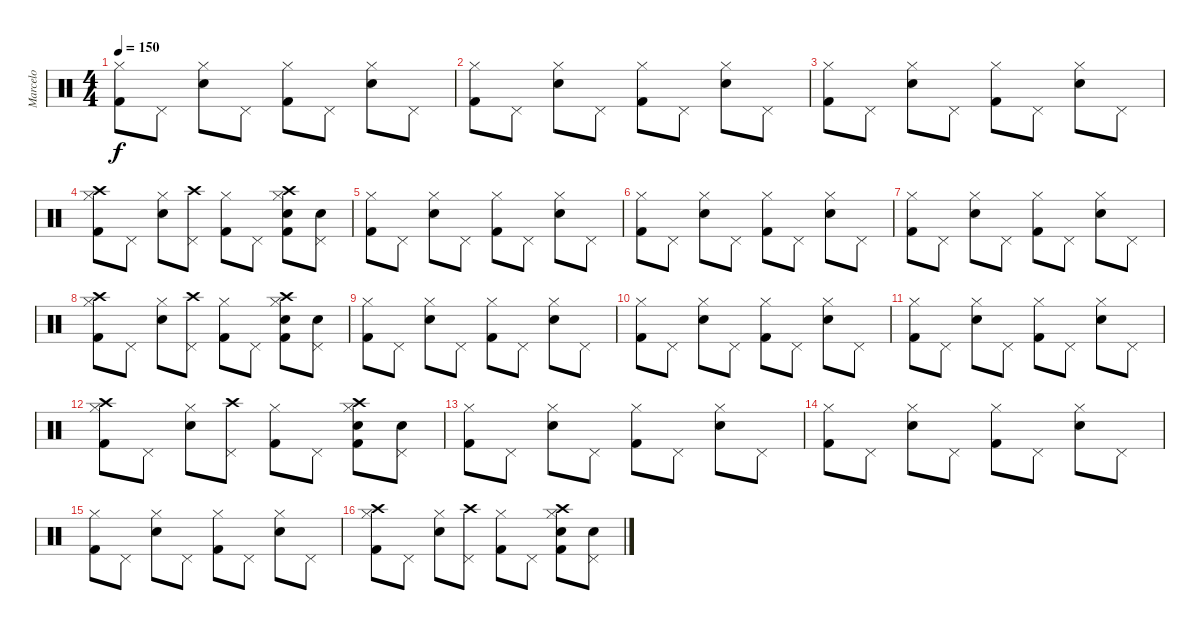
\track ("Marcelo" "Marcelo") {instrument percussion}
\staff {score}
\articulation defaults
\ts (4 4)
\tempo 150
\clef neutral
\ks c
("Hi-Hat (closed)" "Kick (hit) 2").8{dy f} "Pedal Hi-Hat (hit)".8 ("Hi-Hat (closed)" "Electric Snare (hit)").8 "Pedal Hi-Hat (hit)".8 ("Hi-Hat (closed)" "Kick (hit) 2").8 "Pedal Hi-Hat (hit)".8 ("Hi-Hat (closed)" "Electric Snare (hit)").8 "Pedal Hi-Hat (hit)".8 |
("Hi-Hat (closed)" "Kick (hit) 2").8 "Pedal Hi-Hat (hit)".8 ("Hi-Hat (closed)" "Electric Snare (hit)").8 "Pedal Hi-Hat (hit)".8 ("Hi-Hat (closed)" "Kick (hit) 2").8 "Pedal Hi-Hat (hit)".8 ("Hi-Hat (closed)" "Electric Snare (hit)").8 "Pedal Hi-Hat (hit)".8 |
("Hi-Hat (closed)" "Kick (hit) 2").8 "Pedal Hi-Hat (hit)".8 ("Hi-Hat (closed)" "Electric Snare (hit)").8 "Pedal Hi-Hat (hit)".8 ("Hi-Hat (closed)" "Kick (hit) 2").8 "Pedal Hi-Hat (hit)".8 ("Hi-Hat (closed)" "Electric Snare (hit)").8 "Pedal Hi-Hat (hit)".8 |
("Hi-Hat (closed)" "Kick (hit) 2" "Crash high (hit)").8 "Pedal Hi-Hat (hit)".8 ("Hi-Hat (closed)" "Electric Snare (hit)").8 ("Pedal Hi-Hat (hit)" "Crash high (hit)").8 ("Hi-Hat (closed)" "Kick (hit) 2").8 "Pedal Hi-Hat (hit)".8 ("Hi-Hat (closed)" "Electric Snare (hit)" "Crash high (hit)" "Kick (hit) 2").8 ("Pedal Hi-Hat (hit)" "Electric Snare (hit)").8 |
("Hi-Hat (closed)" "Kick (hit) 2").8 "Pedal Hi-Hat (hit)".8 ("Hi-Hat (closed)" "Electric Snare (hit)").8 "Pedal Hi-Hat (hit)".8 ("Hi-Hat (closed)" "Kick (hit) 2").8 "Pedal Hi-Hat (hit)".8 ("Hi-Hat (closed)" "Electric Snare (hit)").8 "Pedal Hi-Hat (hit)".8 |
("Hi-Hat (closed)" "Kick (hit) 2").8 "Pedal Hi-Hat (hit)".8 ("Hi-Hat (closed)" "Electric Snare (hit)").8 "Pedal Hi-Hat (hit)".8 ("Hi-Hat (closed)" "Kick (hit) 2").8 "Pedal Hi-Hat (hit)".8 ("Hi-Hat (closed)" "Electric Snare (hit)").8 "Pedal Hi-Hat (hit)".8 |
("Hi-Hat (closed)" "Kick (hit) 2").8 "Pedal Hi-Hat (hit)".8 ("Hi-Hat (closed)" "Electric Snare (hit)").8 "Pedal Hi-Hat (hit)".8 ("Hi-Hat (closed)" "Kick (hit) 2").8 "Pedal Hi-Hat (hit)".8 ("Hi-Hat (closed)" "Electric Snare (hit)").8 "Pedal Hi-Hat (hit)".8 |
("Hi-Hat (closed)" "Kick (hit) 2" "Crash high (hit)").8 "Pedal Hi-Hat (hit)".8 ("Hi-Hat (closed)" "Electric Snare (hit)").8 ("Pedal Hi-Hat (hit)" "Crash high (hit)").8 ("Hi-Hat (closed)" "Kick (hit) 2").8 "Pedal Hi-Hat (hit)".8 ("Hi-Hat (closed)" "Electric Snare (hit)" "Crash high (hit)" "Kick (hit) 2").8 ("Pedal Hi-Hat (hit)" "Electric Snare (hit)").8 |
("Hi-Hat (closed)" "Kick (hit) 2").8 "Pedal Hi-Hat (hit)".8 ("Hi-Hat (closed)" "Electric Snare (hit)").8 "Pedal Hi-Hat (hit)".8 ("Hi-Hat (closed)" "Kick (hit) 2").8 "Pedal Hi-Hat (hit)".8 ("Hi-Hat (closed)" "Electric Snare (hit)").8 "Pedal Hi-Hat (hit)".8 |
("Hi-Hat (closed)" "Kick (hit) 2").8 "Pedal Hi-Hat (hit)".8 ("Hi-Hat (closed)" "Electric Snare (hit)").8 "Pedal Hi-Hat (hit)".8 ("Hi-Hat (closed)" "Kick (hit) 2").8 "Pedal Hi-Hat (hit)".8 ("Hi-Hat (closed)" "Electric Snare (hit)").8 "Pedal Hi-Hat (hit)".8 |
("Hi-Hat (closed)" "Kick (hit) 2").8 "Pedal Hi-Hat (hit)".8 ("Hi-Hat (closed)" "Electric Snare (hit)").8 "Pedal Hi-Hat (hit)".8 ("Hi-Hat (closed)" "Kick (hit) 2").8 "Pedal Hi-Hat (hit)".8 ("Hi-Hat (closed)" "Electric Snare (hit)").8 "Pedal Hi-Hat (hit)".8 |
("Hi-Hat (closed)" "Kick (hit) 2" "Crash high (hit)").8 "Pedal Hi-Hat (hit)".8 ("Hi-Hat (closed)" "Electric Snare (hit)").8 ("Pedal Hi-Hat (hit)" "Crash high (hit)").8 ("Hi-Hat (closed)" "Kick (hit) 2").8 "Pedal Hi-Hat (hit)".8 ("Hi-Hat (closed)" "Electric Snare (hit)" "Crash high (hit)" "Kick (hit) 2").8 ("Pedal Hi-Hat (hit)" "Electric Snare (hit)").8 |
("Hi-Hat (closed)" "Kick (hit) 2").8 "Pedal Hi-Hat (hit)".8 ("Hi-Hat (closed)" "Electric Snare (hit)").8 "Pedal Hi-Hat (hit)".8 ("Hi-Hat (closed)" "Kick (hit) 2").8 "Pedal Hi-Hat (hit)".8 ("Hi-Hat (closed)" "Electric Snare (hit)").8 "Pedal Hi-Hat (hit)".8 |
("Hi-Hat (closed)" "Kick (hit) 2").8 "Pedal Hi-Hat (hit)".8 ("Hi-Hat (closed)" "Electric Snare (hit)").8 "Pedal Hi-Hat (hit)".8 ("Hi-Hat (closed)" "Kick (hit) 2").8 "Pedal Hi-Hat (hit)".8 ("Hi-Hat (closed)" "Electric Snare (hit)").8 "Pedal Hi-Hat (hit)".8 |
("Hi-Hat (closed)" "Kick (hit) 2").8 "Pedal Hi-Hat (hit)".8 ("Hi-Hat (closed)" "Electric Snare (hit)").8 "Pedal Hi-Hat (hit)".8 ("Hi-Hat (closed)" "Kick (hit) 2").8 "Pedal Hi-Hat (hit)".8 ("Hi-Hat (closed)" "Electric Snare (hit)").8 "Pedal Hi-Hat (hit)".8 |
("Hi-Hat (closed)" "Kick (hit) 2" "Crash high (hit)").8 "Pedal Hi-Hat (hit)".8 ("Hi-Hat (closed)" "Electric Snare (hit)").8 ("Pedal Hi-Hat (hit)" "Crash high (hit)").8 ("Hi-Hat (closed)" "Kick (hit) 2").8 "Pedal Hi-Hat (hit)".8 ("Hi-Hat (closed)" "Electric Snare (hit)" "Crash high (hit)" "Kick (hit) 2").8 ("Pedal Hi-Hat (hit)" "Electric Snare (hit)").8
